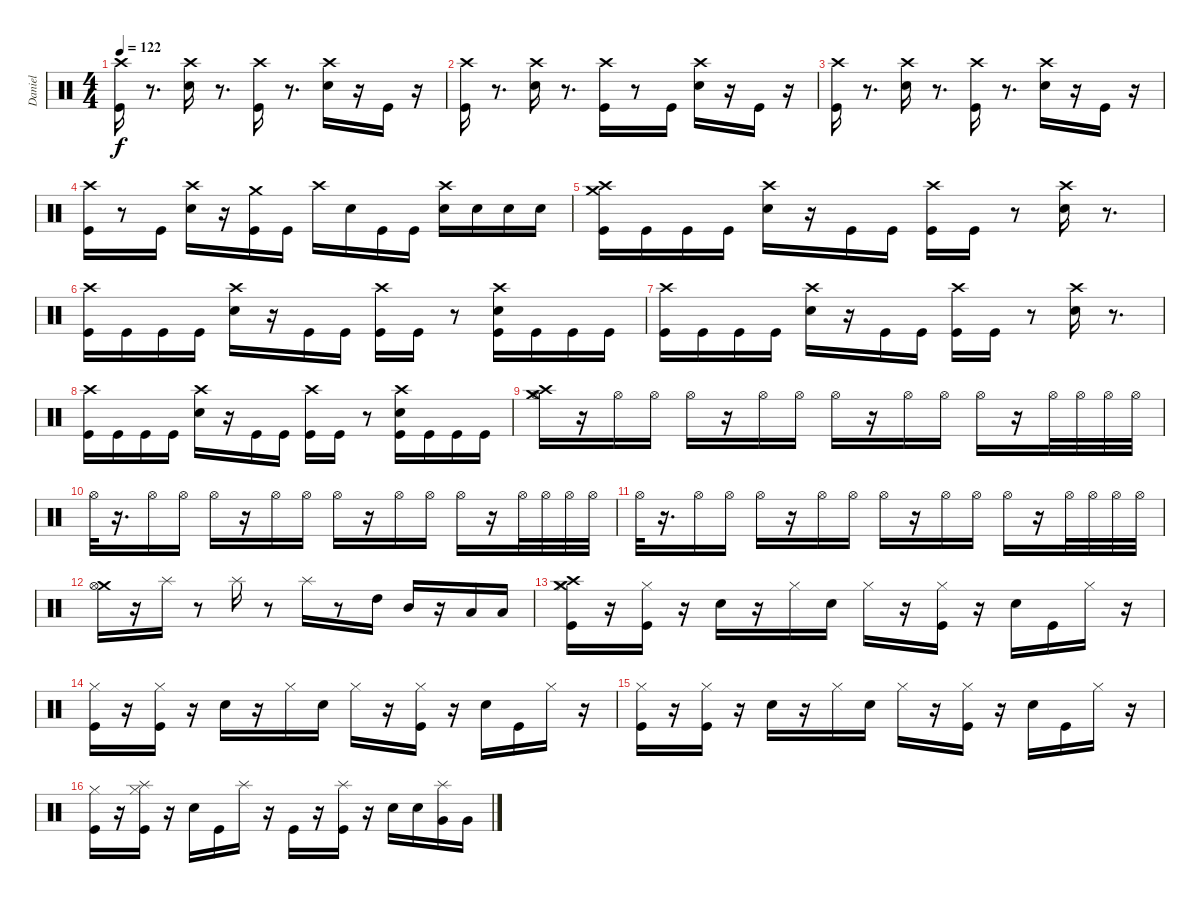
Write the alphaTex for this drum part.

\track ("Daniel" "Daniel") {instrument percussion}
\staff {score}
\articulation defaults
\ts (4 4)
\tempo 122
\clef neutral
\ks c
("Crash high (hit)" "Kick (hit)").16{dy f} r.8{d} ("Electric Snare (hit)" "Crash high (hit)").16 r.8{d} ("Kick (hit)" "Crash high (hit)").16 r.8{d} ("Electric Snare (hit)" "Crash high (hit)").16 r.16 "Kick (hit)".16 r.16 |
("Kick (hit)" "Crash high (hit)").16 r.8{d} ("Electric Snare (hit)" "Crash high (hit)").16 r.8{d} ("Kick (hit)" "Crash high (hit)").16 r.8 "Kick (hit)".16 ("Electric Snare (hit)" "Crash high (hit)").16 r.16 "Kick (hit)".16 r.16 |
("Crash high (hit)" "Kick (hit)").16 r.8{d} ("Electric Snare (hit)" "Crash high (hit)").16 r.8{d} ("Kick (hit)" "Crash high (hit)").16 r.8{d} ("Electric Snare (hit)" "Crash high (hit)").16 r.16 "Kick (hit)".16 r.16 |
("Kick (hit)" "Crash high (hit)").16 r.8 "Kick (hit)".16 ("Electric Snare (hit)" "Crash high (hit)").16 r.16 ("Crash medium (hit)" "Kick (hit)").16 "Kick (hit)".16 "Crash high (hit)".16 "Electric Snare (hit)".16 "Kick (hit)".16 "Kick (hit)".16 ("Crash high (hit)" "Electric Snare (hit)").16 "Electric Snare (hit)".16 "Electric Snare (hit)".16 "Electric Snare (hit)".16 |
("Crash high (hit)" "Crash medium (hit)" "Kick (hit)").16 "Kick (hit)".16 "Kick (hit)".16 "Kick (hit)".16 ("Crash high (hit)" "Electric Snare (hit)").16 r.16 "Kick (hit)".16 "Kick (hit)".16 ("Crash high (hit)" "Kick (hit)").16 "Kick (hit)".16 r.8 ("Crash high (hit)" "Electric Snare (hit)").16 r.8{d} |
("Crash high (hit)" "Kick (hit)").16 "Kick (hit)".16 "Kick (hit)".16 "Kick (hit)".16 ("Electric Snare (hit)" "Crash high (hit)").16 r.16 "Kick (hit)".16 "Kick (hit)".16 ("Crash high (hit)" "Kick (hit)").16 "Kick (hit)".16 r.8 ("Electric Snare (hit)" "Crash high (hit)" "Kick (hit)").16 "Kick (hit)".16 "Kick (hit)".16 "Kick (hit)".16 |
("Crash high (hit)" "Kick (hit)").16 "Kick (hit)".16 "Kick (hit)".16 "Kick (hit)".16 ("Electric Snare (hit)" "Crash high (hit)").16 r.16 "Kick (hit)".16 "Kick (hit)".16 ("Crash high (hit)" "Kick (hit)").16 "Kick (hit)".16 r.8 ("Electric Snare (hit)" "Crash high (hit)").16 r.8{d} |
("Crash high (hit)" "Kick (hit)").16 "Kick (hit)".16 "Kick (hit)".16 "Kick (hit)".16 ("Electric Snare (hit)" "Crash high (hit)").16 r.16 "Kick (hit)".16 "Kick (hit)".16 ("Crash high (hit)" "Kick (hit)").16 "Kick (hit)".16 r.8 ("Electric Snare (hit)" "Crash high (hit)" "Kick (hit)").16 "Kick (hit)".16 "Kick (hit)".16 "Kick (hit)".16 |
("Hi-Hat (open)" "Crash high (hit)" "Crash medium (hit)").16 r.16 "Hi-Hat (open)".16 "Hi-Hat (open)".16 "Hi-Hat (open)".16 r.16 "Hi-Hat (open)".16 "Hi-Hat (open)".16 "Hi-Hat (open)".16 r.16 "Hi-Hat (open)".16 "Hi-Hat (open)".16 "Hi-Hat (open)".16 r.16 "Hi-Hat (open)".32 "Hi-Hat (open)".32 "Hi-Hat (open)".32 "Hi-Hat (open)".32 |
"Hi-Hat (open)".32 r.16{d} "Hi-Hat (open)".16 "Hi-Hat (open)".16 "Hi-Hat (open)".16 r.16 "Hi-Hat (open)".16 "Hi-Hat (open)".16 "Hi-Hat (open)".16 r.16 "Hi-Hat (open)".16 "Hi-Hat (open)".16 "Hi-Hat (open)".16 r.16 "Hi-Hat (open)".32 "Hi-Hat (open)".32 "Hi-Hat (open)".32 "Hi-Hat (open)".32 |
"Hi-Hat (open)".32 r.16{d} "Hi-Hat (open)".16 "Hi-Hat (open)".16 "Hi-Hat (open)".16 r.16 "Hi-Hat (open)".16 "Hi-Hat (open)".16 "Hi-Hat (open)".16 r.16 "Hi-Hat (open)".16 "Hi-Hat (open)".16 "Hi-Hat (open)".16 r.16 "Hi-Hat (open)".32 "Hi-Hat (open)".32 "Hi-Hat (open)".32 "Hi-Hat (open)".32 |
("Crash medium (hit)" "Hi-Hat (open)").16 r.16 "Splash (hit)".16 r.8 "Splash (hit)".16 r.8 "Splash (hit)".16 r.8 "High Tom (hit)".16 "Mid Tom (hit)".16 r.16 "Low Tom (hit)".16 "Low Floor Tom (hit)".16 |
("Hi-Hat (closed)" "Kick (hit)" "Crash medium (hit)" "Crash high (hit)").16 r.16 ("Kick (hit)" "Hi-Hat (closed)").16 r.16 "Electric Snare (hit)".16 r.16 "Hi-Hat (closed)".16 "Electric Snare (hit)".16 "Hi-Hat (closed)".16 r.16 ("Hi-Hat (closed)" "Kick (hit)").16 r.16 "Electric Snare (hit)".16 "Kick (hit)".16 "Hi-Hat (closed)".16 r.16 |
("Hi-Hat (closed)" "Kick (hit)").16 r.16 ("Hi-Hat (closed)" "Kick (hit)").16 r.16 "Electric Snare (hit)".16 r.16 "Hi-Hat (closed)".16 "Electric Snare (hit)".16 "Hi-Hat (closed)".16 r.16 ("Hi-Hat (closed)" "Kick (hit)").16 r.16 "Electric Snare (hit)".16 "Kick (hit)".16 "Hi-Hat (closed)".16 r.16 |
("Hi-Hat (closed)" "Kick (hit)").16 r.16 ("Hi-Hat (closed)" "Kick (hit)").16 r.16 "Electric Snare (hit)".16 r.16 "Hi-Hat (closed)".16 "Electric Snare (hit)".16 "Hi-Hat (closed)".16 r.16 ("Hi-Hat (closed)" "Kick (hit)").16 r.16 "Electric Snare (hit)".16 "Kick (hit)".16 "Hi-Hat (closed)".16 r.16 |
("Hi-Hat (closed)" "Kick (hit)").16 r.16 ("Hi-Hat (closed)" "Splash (hit)" "Kick (hit)").16 r.16 "Electric Snare (hit)".16 "Kick (hit)".16 "Splash (hit)".16 r.16 "Kick (hit)".16 r.16 ("Splash (hit)" "Kick (hit)").16 r.16 "Electric Snare (hit)".16 "Electric Snare (hit)".16 ("Very Low Tom (hit)" "Splash (hit)").16 "Very Low Tom (hit)".16
